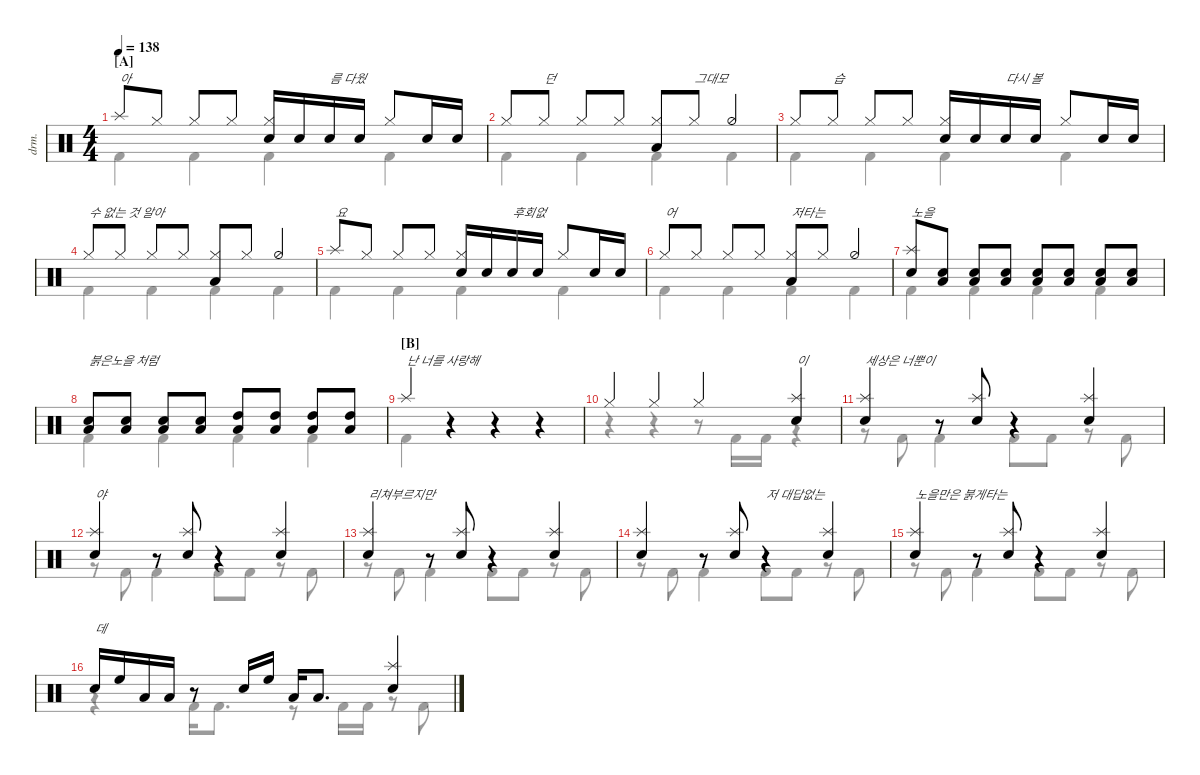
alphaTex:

\defaultSystemsLayout 4
\hideDynamics
\bracketExtendMode nobrackets
\track ("Drumkit" "drm.") {instrument percussion}
\staff {score}
\articulation defaults
\voice
\ts (4 4)
\section ("A" "")
\tempo 138
\clef neutral
\ks c "Splash (hit)".8{txt "아" dy mf beam Up} "Hi-Hat (closed)".8{beam Up} "Hi-Hat (closed)".8{beam Up} "Hi-Hat (closed)".8{beam Up}
("Hi-Hat (closed)" "Snare (hit) 2").16{beam Up} "Snare (hit) 2".16{beam Up} "Snare (hit) 2".16{txt "름 다웠" beam Up} "Snare (hit) 2".16{beam Up} "Hi-Hat (closed)".8{beam Up} "Snare (hit) 2".16{beam Up} "Snare (hit) 2".16{beam Up} |
"Hi-Hat (closed)".8{beam Up} "Hi-Hat (closed)".8{txt "던" beam Up} "Hi-Hat (closed)".8{beam Up} "Hi-Hat (closed)".8{beam Up} ("Hi-Hat (closed)" "Low Tom (hit)").8{beam Up} "Hi-Hat (closed)".8{txt "그대모" beam Up} "Hi-Hat (half)".4{beam Up} |
"Hi-Hat (closed)".8{beam Up} "Hi-Hat (closed)".8{txt "습" beam Up} "Hi-Hat (closed)".8{beam Up} "Hi-Hat (closed)".8{beam Up} ("Hi-Hat (closed)" "Snare (hit) 2").16{beam Up} "Snare (hit) 2".16{beam Up} "Snare (hit) 2".16{txt "다시 볼" beam Up} "Snare (hit) 2".16{beam Up} "Hi-Hat (closed)".8{beam Up} "Snare (hit) 2".16{beam Up} "Snare (hit) 2".16{beam Up} |
"Hi-Hat (closed)".8{txt "수 없는 것 알아" beam Up} "Hi-Hat (closed)".8{beam Up} "Hi-Hat (closed)".8{beam Up} "Hi-Hat (closed)".8{beam Up} ("Hi-Hat (closed)" "Low Tom (hit)").8{beam Up} "Hi-Hat (closed)".8{beam Up} "Hi-Hat (half)".4{beam Up} |
"Splash (hit)".8{txt "요" beam Up} "Hi-Hat (closed)".8{beam Up} "Hi-Hat (closed)".8{beam Up} "Hi-Hat (closed)".8{beam Up} ("Hi-Hat (closed)" "Snare (hit) 2").16{beam Up} "Snare (hit) 2".16{beam Up} "Snare (hit) 2".16{txt "후회없" beam Up} "Snare (hit) 2".16{beam Up} "Hi-Hat (closed)".8{beam Up} "Snare (hit) 2".16{beam Up} "Snare (hit) 2".16{beam Up} |
"Hi-Hat (closed)".8{txt "어" beam Up} "Hi-Hat (closed)".8{beam Up} "Hi-Hat (closed)".8{beam Up} "Hi-Hat (closed)".8{beam Up} ("Hi-Hat (closed)" "Low Tom (hit)").8{txt "저타는" beam Up} "Hi-Hat (closed)".8{beam Up} "Hi-Hat (half)".4{beam Up} |
("Splash (hit)" "Snare (hit) 2").8{txt "노을" beam Up} ("Snare (hit) 2" "Low Tom (hit)").8{beam Up} ("Snare (hit) 2" "Low Tom (hit)").8{beam Up} ("Snare (hit) 2" "Low Tom (hit)").8{beam Up} ("Snare (hit) 2" "Low Tom (hit)").8{beam Up} ("Snare (hit) 2" "Low Tom (hit)").8{beam Up} ("Snare (hit) 2" "Low Tom (hit)").8{beam Up} ("Snare (hit) 2" "Low Tom (hit)").8{beam Up} |
("Snare (hit) 2" "Low Tom (hit)").8{txt "붉은노을 처럼" beam Up} ("Snare (hit) 2" "Low Tom (hit)").8{beam Up} ("Snare (hit) 2" "Low Tom (hit)").8{beam Up} ("Snare (hit) 2" "Low Tom (hit)").8{beam Up} ("High Tom (hit)" "Low Tom (hit)").8{beam Up} ("High Tom (hit)" "Low Tom (hit)").8{beam Up} ("High Tom (hit)" "Low Tom (hit)").8{beam Up} ("High Tom (hit)" "Low Tom (hit)").8{beam Up} |
\section ("B" "")
"Splash (hit)".4{txt "난 너를 사랑해" beam Up} r.4{beam Up} r.4{beam Up} r.4{beam Up} |
"Hi-Hat (closed)".4{beam Up} "Hi-Hat (closed)".4{beam Up} "Hi-Hat (closed)".4{beam Up} ("Splash (hit)" "Snare (hit) 2").4{txt "이" beam Up} |
("Splash (hit)" "Snare (hit) 2").4{txt "세상은 너뿐이" beam Up} r.8{beam Up} ("Splash (hit)" "Snare (hit) 2").8{beam Up} r.4{beam Up} ("Splash (hit)" "Snare (hit) 2").4{beam Up} |
("Splash (hit)" "Snare (hit) 2").4{txt "야" beam Up} r.8{beam Up} ("Splash (hit)" "Snare (hit) 2").8{beam Up} r.4{beam Up} ("Splash (hit)" "Snare (hit) 2").4{beam Up} |
("Splash (hit)" "Snare (hit) 2").4{txt "리쳐부르지만" beam Up} r.8{beam Up} ("Splash (hit)" "Snare (hit) 2").8{beam Up} r.4{beam Up} ("Splash (hit)" "Snare (hit) 2").4{beam Up} |
("Splash (hit)" "Snare (hit) 2").4{beam Up} r.8{beam Up} ("Splash (hit)" "Snare (hit) 2").8{beam Up} r.4{txt "저 대답없는" beam Up} ("Splash (hit)" "Snare (hit) 2").4{beam Up} |
("Splash (hit)" "Snare (hit) 2").4{txt "노을만은 붉게타는" beam Up} r.8{beam Up} ("Splash (hit)" "Snare (hit) 2").8{beam Up} r.4{beam Up} ("Splash (hit)" "Snare (hit) 2").4{beam Up} |
"Snare (hit) 2".16{txt "데" beam Up} "High Floor Tom (hit)".16{beam Up} "Low Tom (hit)".16{beam Up} "Low Tom (hit)".16{beam Up} r.8{beam Up} "Snare (hit) 2".16{beam Up} "High Floor Tom (hit)".16{beam Up} "Low Tom (hit)".16{beam Up} "Low Tom (hit)".8{d beam Up} ("Snare (hit) 2" "Splash (hit)").4{beam Up}
\voice
\clef neutral
\ottava regular
\simile none
\ks c
|
|
|
|
|
|
|
|
|
|
|
|
|
|
|
\voice
\clef neutral
\ottava regular
\simile none
\ks c "Kick (hit) 2".4{dy mf beam Down} "Kick (hit) 2".4{beam Down} "Kick (hit) 2".4{beam Down} "Kick (hit) 2".4{beam Down}
|
"Kick (hit) 2".4{beam Down} "Kick (hit) 2".4{beam Down} "Kick (hit) 2".4{beam Down} "Kick (hit) 2".4{beam Down} |
"Kick (hit) 2".4{beam Down} "Kick (hit) 2".4{beam Down} "Kick (hit) 2".4{beam Down} "Kick (hit) 2".4{beam Down} |
"Kick (hit) 2".4{beam Down} "Kick (hit) 2".4{beam Down} "Kick (hit) 2".4{beam Down} "Kick (hit) 2".4{beam Down} |
"Kick (hit) 2".4{beam Down} "Kick (hit) 2".4{beam Down} "Kick (hit) 2".4{beam Down} "Kick (hit) 2".4{beam Down} |
"Kick (hit) 2".4{beam Down} "Kick (hit) 2".4{beam Down} "Kick (hit) 2".4{beam Down} "Kick (hit) 2".4{beam Down} |
"Kick (hit) 2".4{beam Down} "Kick (hit) 2".4{beam Down} "Kick (hit) 2".4{beam Down} "Kick (hit) 2".4{beam Down} |
"Kick (hit) 2".4{beam Down} "Kick (hit) 2".4{beam Down} "Kick (hit) 2".4{beam Down} "Kick (hit) 2".4{beam Down} |
"Kick (hit) 2".4{beam Down} r.4{beam Down} r.4{beam Down} r.4{beam Down} |
r.4{beam Down} r.4{beam Down} r.8{beam Down} "Kick (hit) 2".16{beam Down} "Kick (hit) 2".16{beam Down} r.4{beam Down} |
r.8{beam Down} "Kick (hit) 2".8{beam Down} "Kick (hit) 2".4{beam Down} "Kick (hit) 2".8{beam Down} "Kick (hit) 2".8{beam Down} r.8{beam Down} "Kick (hit) 2".8{beam Down} |
r.8{beam Down} "Kick (hit) 2".8{beam Down} "Kick (hit) 2".4{beam Down} "Kick (hit) 2".8{beam Down} "Kick (hit) 2".8{beam Down} r.8{beam Down} "Kick (hit) 2".8{beam Down} |
r.8{beam Down} "Kick (hit) 2".8{beam Down} "Kick (hit) 2".4{beam Down} "Kick (hit) 2".8{beam Down} "Kick (hit) 2".8{beam Down} r.8{beam Down} "Kick (hit) 2".8{beam Down} |
r.8{beam Down} "Kick (hit) 2".8{beam Down} "Kick (hit) 2".4{beam Down} "Kick (hit) 2".8{beam Down} "Kick (hit) 2".8{beam Down} r.8{beam Down} "Kick (hit) 2".8{beam Down} |
r.8{beam Down} "Kick (hit) 2".8{beam Down} "Kick (hit) 2".4{beam Down} "Kick (hit) 2".8{beam Down} "Kick (hit) 2".8{beam Down} r.8{beam Down} "Kick (hit) 2".8{beam Down} |
r.4{beam Down} "Kick (hit) 2".16{beam Down} "Kick (hit) 2".8{d beam Down} r.8{beam Down} "Kick (hit) 2".16{beam Down} "Kick (hit) 2".16{beam Down} r.8{beam Down} "Kick (hit) 2".8{beam Down}
